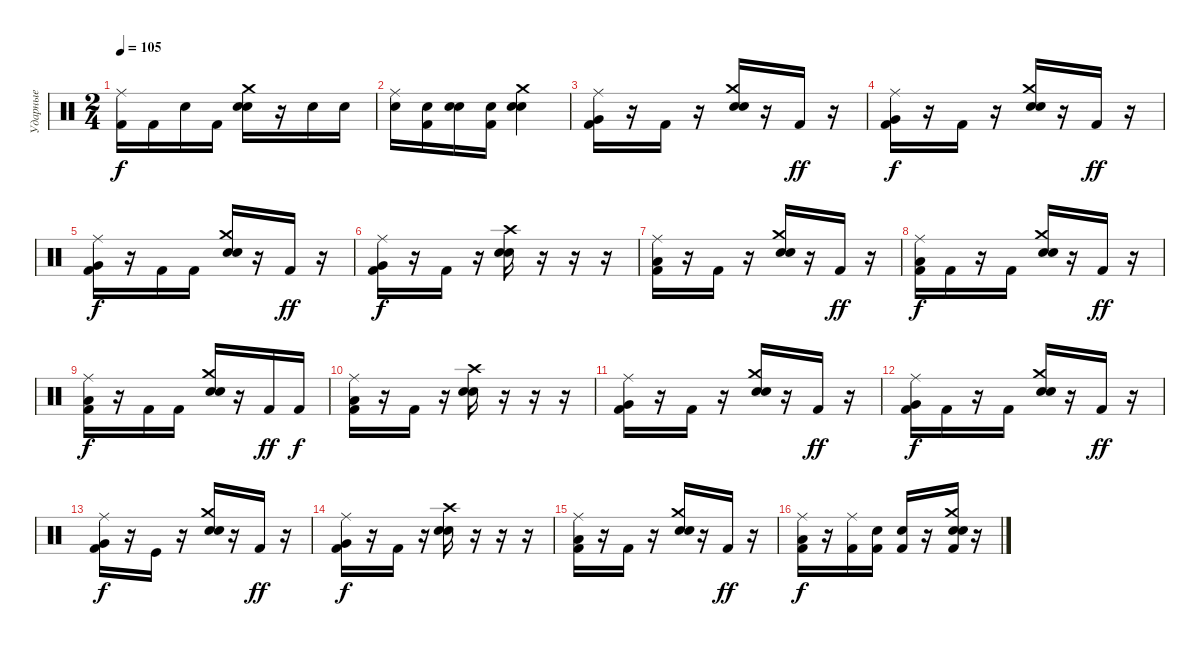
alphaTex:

\track ("Ударные" "Ударные") {instrument percussion}
\staff {score}
\articulation defaults
\ts (2 4)
\tempo 105
\clef neutral
\ks c
("Ride (middle)" "Kick (hit) 2").16{dy f} "Kick (hit) 2".16 "Electric Snare (hit)".16 "Kick (hit) 2".16 ("Crash medium (hit)" "Snare (hit) 2" "Electric Snare (hit)").16 r.16 "Electric Snare (hit)".16 "Electric Snare (hit)".16 |
("Ride (middle)" "Snare (hit) 2").16 ("Kick (hit) 2" "Electric Snare (hit)").16 ("Snare (hit) 2" "Electric Snare (hit)").16 ("Kick (hit) 2" "Electric Snare (hit)").16 ("Crash medium (hit)" "Snare (hit) 2" "Electric Snare (hit)").4 |
("Ride (middle)" "Kick (hit) 2" "Very Low Tom (hit)").16 r.16 "Kick (hit) 2".16 r.16 ("Crash medium (hit)" "Snare (hit) 2" "Electric Snare (hit)").16 r.16 "Kick (hit) 2".16{dy ff} r.16 |
("Ride (middle)" "Kick (hit) 2" "Very Low Tom (hit)").16{dy f} r.16 "Kick (hit) 2".16 r.16 ("Crash medium (hit)" "Snare (hit) 2" "Electric Snare (hit)").16 r.16 "Kick (hit) 2".16{dy ff} r.16 |
("Ride (middle)" "Kick (hit) 2" "Very Low Tom (hit)").16{dy f} r.16 "Kick (hit) 2".16 "Kick (hit) 2".16 ("Crash medium (hit)" "Snare (hit) 2" "Electric Snare (hit)").16 r.16 "Kick (hit) 2".16{dy ff} r.16 |
("Ride (middle)" "Kick (hit) 2" "Very Low Tom (hit)").16{dy f} r.16 "Kick (hit) 2".16 r.16 ("Crash high (hit)" "Snare (hit) 2" "Electric Snare (hit)").16 r.16 r.16 r.16 |
("Ride (middle)" "Kick (hit) 2" "Low Tom (hit)").16 r.16 "Kick (hit) 2".16 r.16 ("Crash medium (hit)" "Snare (hit) 2" "Electric Snare (hit)").16 r.16 "Kick (hit) 2".16{dy ff} r.16 |
("Ride (middle)" "Kick (hit) 2" "Low Tom (hit)").16{dy f} "Kick (hit) 2".16 r.16 "Kick (hit) 2".16 ("Crash medium (hit)" "Snare (hit) 2" "Electric Snare (hit)").16 r.16 "Kick (hit) 2".16{dy ff} r.16 |
("Ride (middle)" "Kick (hit) 2" "Low Tom (hit)").16{dy f} r.16 "Kick (hit) 2".16 "Kick (hit) 2".16 ("Crash medium (hit)" "Snare (hit) 2" "Electric Snare (hit)").16 r.16 "Kick (hit) 2".16{dy ff} "Kick (hit) 2".16{dy f} |
("Ride (middle)" "Kick (hit) 2" "Low Tom (hit)").16 r.16 "Kick (hit) 2".16 r.16 ("Crash high (hit)" "Snare (hit) 2" "Electric Snare (hit)").16 r.16 r.16 r.16 |
("Ride (middle)" "Kick (hit) 2" "Very Low Tom (hit)").16 r.16 "Kick (hit) 2".16 r.16 ("Crash medium (hit)" "Snare (hit) 2" "Electric Snare (hit)").16 r.16 "Kick (hit) 2".16{dy ff} r.16 |
("Ride (middle)" "Kick (hit) 2" "Very Low Tom (hit)").16{dy f} "Kick (hit) 2".16 r.16 "Kick (hit) 2".16 ("Crash medium (hit)" "Snare (hit) 2" "Electric Snare (hit)").16 r.16 "Kick (hit) 2".16{dy ff} r.16 |
("Ride (middle)" "Kick (hit) 2" "Very Low Tom (hit)").16{dy f} r.16 "Kick (hit)".16 r.16 ("Crash medium (hit)" "Snare (hit) 2" "Electric Snare (hit)").16 r.16 "Kick (hit) 2".16{dy ff} r.16 |
("Ride (middle)" "Kick (hit) 2" "Very Low Tom (hit)").16{dy f} r.16 "Kick (hit) 2".16 r.16 ("Crash high (hit)" "Snare (hit) 2" "Electric Snare (hit)").16 r.16 r.16 r.16 |
("Ride (middle)" "Kick (hit) 2" "Low Floor Tom (hit)").16 r.16 "Kick (hit) 2".16 r.16 ("Crash medium (hit)" "Snare (hit) 2" "Electric Snare (hit)").16 r.16 "Kick (hit) 2".16{dy ff} r.16 |
("Ride (middle)" "Kick (hit) 2" "Low Floor Tom (hit)").16{dy f} r.16 ("Ride (middle)" "Kick (hit) 2").16 ("Kick (hit) 2" "Electric Snare (hit)").16 ("Kick (hit) 2" "Electric Snare (hit)").16 r.16 ("Crash medium (hit)" "Snare (hit) 2" "Electric Snare (hit)" "Kick (hit) 2").16 r.16
